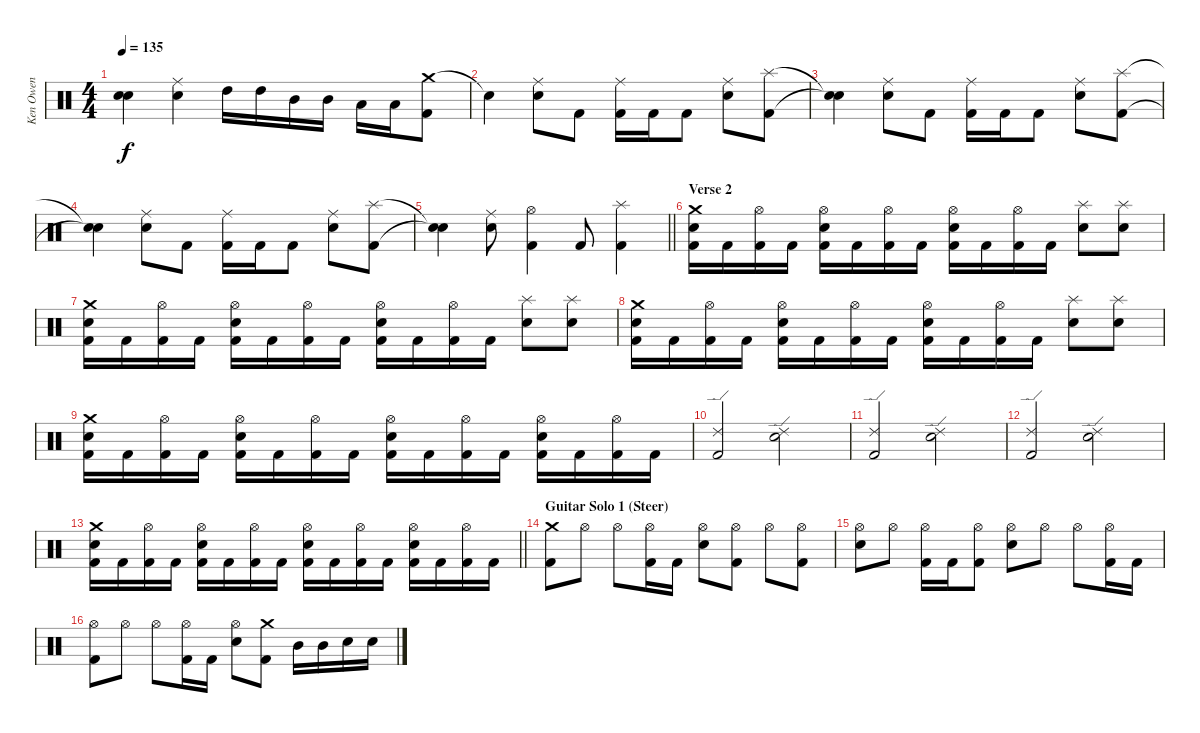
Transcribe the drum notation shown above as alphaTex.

\track ("Ken Owen" "Ken Owen") {instrument percussion}
\staff {score}
\articulation defaults
\ts (4 4)
\tempo 135
\clef neutral
\ks c
("Snare (hit)"{t} "Snare (hit)"{t}).4{dy f} ("Ride (middle)" "Electric Snare (hit)").4 "High Tom (hit)".16 "High Tom (hit)".16 "Mid Tom (hit)".16 "Mid Tom (hit)".16 "Low Tom (hit)".16 "Low Tom (hit)".16 ("Crash medium (hit)" "Kick (hit) 2").8 |
"Snare (hit)"{t}.4 ("Ride (middle)" "Electric Snare (hit)").8 "Kick (hit) 2".8 ("Ride (middle)" "Kick (hit) 2").16 "Kick (hit) 2".16 "Kick (hit) 2".8 ("Ride (middle)" "Electric Snare (hit)").8 ("Splash (hit)" "Kick (hit) 2").8 |
("Snare (hit)"{t} "Snare (hit)"{t}).4 ("Ride (middle)" "Electric Snare (hit)").8 "Kick (hit) 2".8 ("Ride (middle)" "Kick (hit) 2").16 "Kick (hit) 2".16 "Kick (hit) 2".8 ("Ride (middle)" "Electric Snare (hit)").8 ("Splash (hit)" "Kick (hit) 2").8 |
("Snare (hit)"{t} "Snare (hit)"{t}).4 ("Ride (middle)" "Electric Snare (hit)").8 "Kick (hit) 2".8 ("Ride (middle)" "Kick (hit) 2").16 "Kick (hit) 2".16 "Kick (hit) 2".8 ("Ride (middle)" "Electric Snare (hit)").8 ("Splash (hit)" "Kick (hit) 2").8 |
\barLineRight lightlight
("Snare (hit)"{t} "Snare (hit)"{t}).4 ("Ride (middle)" "Electric Snare (hit)").8 ("Hi-Hat (open)" "Kick (hit) 2").4 "Kick (hit) 2".8 ("Splash (hit)" "Kick (hit) 2").4 |
\section ("" "Verse 2")
("Crash medium (hit)" "Electric Snare (hit)" "Kick (hit) 2").16 "Kick (hit) 2".16 ("Hi-Hat (open)" "Kick (hit) 2").16 "Kick (hit) 2".16 ("Hi-Hat (open)" "Electric Snare (hit)" "Kick (hit) 2").16 "Kick (hit) 2".16 ("Hi-Hat (open)" "Kick (hit) 2").16 "Kick (hit) 2".16 ("Hi-Hat (open)" "Electric Snare (hit)" "Kick (hit) 2").16 "Kick (hit) 2".16 ("Hi-Hat (open)" "Kick (hit) 2").16 "Kick (hit) 2".16 ("Splash (hit)" "Electric Snare (hit)").8 ("Splash (hit)" "Electric Snare (hit)").8 |
("Crash medium (hit)" "Electric Snare (hit)" "Kick (hit) 2").16 "Kick (hit) 2".16 ("Hi-Hat (open)" "Kick (hit) 2").16 "Kick (hit) 2".16 ("Hi-Hat (open)" "Electric Snare (hit)" "Kick (hit) 2").16 "Kick (hit) 2".16 ("Hi-Hat (open)" "Kick (hit) 2").16 "Kick (hit) 2".16 ("Hi-Hat (open)" "Electric Snare (hit)" "Kick (hit) 2").16 "Kick (hit) 2".16 ("Hi-Hat (open)" "Kick (hit) 2").16 "Kick (hit) 2".16 ("Splash (hit)" "Electric Snare (hit)").8 ("Splash (hit)" "Electric Snare (hit)").8 |
("Crash medium (hit)" "Electric Snare (hit)" "Kick (hit) 2").16 "Kick (hit) 2".16 ("Hi-Hat (open)" "Kick (hit) 2").16 "Kick (hit) 2".16 ("Hi-Hat (open)" "Electric Snare (hit)" "Kick (hit) 2").16 "Kick (hit) 2".16 ("Hi-Hat (open)" "Kick (hit) 2").16 "Kick (hit) 2".16 ("Hi-Hat (open)" "Electric Snare (hit)" "Kick (hit) 2").16 "Kick (hit) 2".16 ("Hi-Hat (open)" "Kick (hit) 2").16 "Kick (hit) 2".16 ("Splash (hit)" "Electric Snare (hit)").8 ("Splash (hit)" "Electric Snare (hit)").8 |
("Crash medium (hit)" "Electric Snare (hit)" "Kick (hit) 2").16 "Kick (hit) 2".16 ("Hi-Hat (open)" "Kick (hit) 2").16 "Kick (hit) 2".16 ("Hi-Hat (open)" "Electric Snare (hit)" "Kick (hit) 2").16 "Kick (hit) 2".16 ("Hi-Hat (open)" "Kick (hit) 2").16 "Kick (hit) 2".16 ("Hi-Hat (open)" "Electric Snare (hit)" "Kick (hit) 2").16 "Kick (hit) 2".16 ("Hi-Hat (open)" "Kick (hit) 2").16 "Kick (hit) 2".16 ("Hi-Hat (open)" "Electric Snare (hit)" "Kick (hit) 2").16 "Kick (hit) 2".16 ("Hi-Hat (open)" "Kick (hit) 2").16 "Kick (hit) 2".16 |
("Ride (edge) 2" "Kick (hit) 2").2 ("Ride (edge) 2" "Electric Snare (hit)").2 |
("Ride (edge) 2" "Kick (hit) 2").2 ("Ride (edge) 2" "Electric Snare (hit)").2 |
("Ride (edge) 2" "Kick (hit) 2").2 ("Ride (edge) 2" "Electric Snare (hit)").2 |
\barLineRight lightlight
("Crash medium (hit)" "Electric Snare (hit)" "Kick (hit) 2").16 "Kick (hit) 2".16 ("Hi-Hat (open)" "Kick (hit) 2").16 "Kick (hit) 2".16 ("Hi-Hat (open)" "Electric Snare (hit)" "Kick (hit) 2").16 "Kick (hit) 2".16 ("Hi-Hat (open)" "Kick (hit) 2").16 "Kick (hit) 2".16 ("Hi-Hat (open)" "Electric Snare (hit)" "Kick (hit) 2").16 "Kick (hit) 2".16 ("Hi-Hat (open)" "Kick (hit) 2").16 "Kick (hit) 2".16 ("Hi-Hat (open)" "Electric Snare (hit)" "Kick (hit) 2").16 "Kick (hit) 2".16 ("Hi-Hat (open)" "Kick (hit) 2").16 "Kick (hit) 2".16 |
\section ("" "Guitar Solo 1 (Steer)")
("Crash medium (hit)" "Kick (hit) 2").8 "Hi-Hat (open)".8 "Hi-Hat (open)".8 ("Hi-Hat (open)" "Kick (hit) 2").16 "Kick (hit) 2".16 ("Hi-Hat (open)" "Electric Snare (hit)").8 ("Hi-Hat (open)" "Kick (hit) 2").8 "Hi-Hat (open)".8 ("Hi-Hat (open)" "Kick (hit) 2").8 |
("Hi-Hat (open)" "Electric Snare (hit)").8 "Hi-Hat (open)".8 ("Hi-Hat (open)" "Kick (hit) 2").16 "Kick (hit) 2".16 ("Hi-Hat (open)" "Kick (hit) 2").8 ("Hi-Hat (open)" "Electric Snare (hit)").8 "Hi-Hat (open)".8 "Hi-Hat (open)".8 ("Hi-Hat (open)" "Kick (hit) 2").16 "Kick (hit) 2".16 |
("Hi-Hat (open)" "Kick (hit) 2").8 "Hi-Hat (open)".8 "Hi-Hat (open)".8 ("Hi-Hat (open)" "Kick (hit) 2").16 "Kick (hit) 2".16 ("Hi-Hat (open)" "Electric Snare (hit)").8 ("Crash medium (hit)" "Kick (hit) 2").8 "Mid Tom (hit)".16 "Mid Tom (hit)".16 "Electric Snare (hit)".16 "Electric Snare (hit)".16
